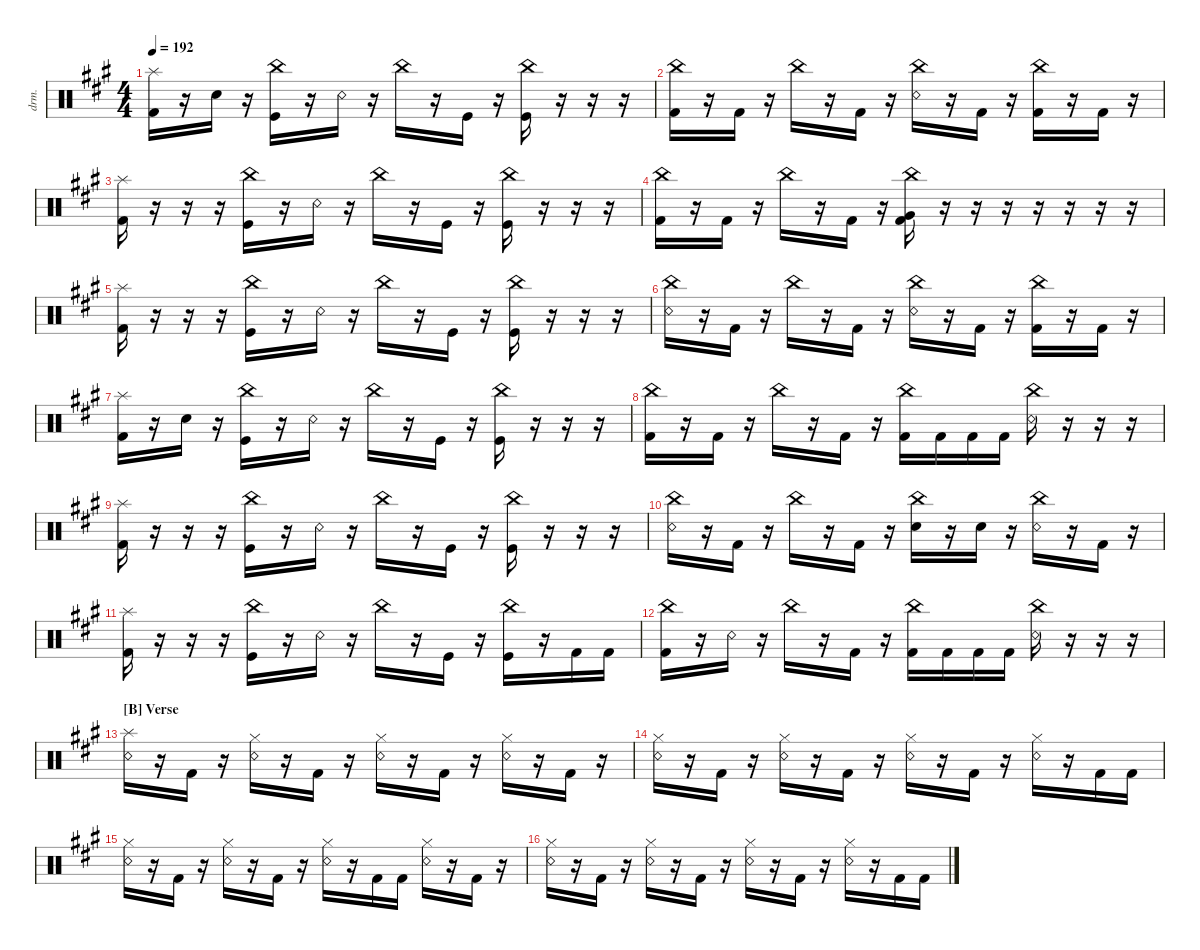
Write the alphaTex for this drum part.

\defaultSystemsLayout 4
\hideDynamics
\bracketExtendMode nobrackets
\otherSystemsTrackNameOrientation horizontal
\track ("Drumkit" "drm.") {instrument percussion}
\staff {score}
\articulation defaults
\ts (4 4)
\tempo 192
\clef neutral
\ks a
("Kick (hit) 2"{acc forcenatural} "Splash (hit)"{acc forcenatural}).16{dy ff beam Down} r.16{beam Down} "Snare (hit) 2"{acc forcenatural}.16{dy p beam Down} r.16{beam Down} ("China (hit)"{acc forcenatural} "Kick (hit)"{acc forcenatural}).16{dy ff beam Down} r.16{beam Down} "Snare (rim shot)"{acc forcenatural}.16{beam Down} r.16{beam Down} "China (hit)"{acc forcenatural}.16{beam Down} r.16{beam Down} "Kick (hit)"{acc forcenatural}.16{beam Down} r.16{beam Down} ("China (hit)"{acc forcenatural} "Kick (hit)"{acc forcenatural}).16{beam Down} r.16{beam Down} r.16{beam Down} r.16{beam Down} |
("Kick (hit) 2"{acc forcenatural} "China (hit)"{acc forcenatural}).16{beam Down} r.16{beam Down} "Kick (hit) 2"{acc forcenatural}.16{beam Down} r.16{beam Down} "China (hit)"{acc forcenatural}.16{beam Down} r.16{beam Down} "Kick (hit) 2"{acc forcenatural}.16{beam Down} r.16{beam Down} ("Snare (rim shot)"{acc forcenatural} "China (hit)"{acc forcenatural}).16{beam Down} r.16{beam Down} "Kick (hit) 2"{acc forcenatural}.16{beam Down} r.16{beam Down} ("Kick (hit) 2"{acc forcenatural} "China (hit)"{acc forcenatural}).16{beam Down} r.16{beam Down} "Kick (hit) 2"{acc forcenatural}.16{beam Down} r.16{beam Down} |
("Kick (hit) 2"{acc forcenatural} "Splash (hit)"{acc forcenatural}).16{beam Down} r.16{beam Down} r.16{beam Down} r.16{beam Down} ("China (hit)"{acc forcenatural} "Kick (hit)"{acc forcenatural}).16{beam Down} r.16{beam Down} "Snare (rim shot)"{acc forcenatural}.16{beam Down} r.16{beam Down} "China (hit)"{acc forcenatural}.16{beam Down} r.16{beam Down} "Kick (hit)"{acc forcenatural}.16{beam Down} r.16{beam Down} ("China (hit)"{acc forcenatural} "Kick (hit)"{acc forcenatural}).16{beam Down} r.16{beam Down} r.16{beam Down} r.16{beam Down} |
("Kick (hit) 2"{acc forcenatural} "China (hit)"{acc forcenatural}).16{beam Down} r.16{beam Down} "Kick (hit) 2"{acc forcenatural}.16{beam Down} r.16{beam Down} "China (hit)"{acc forcenatural}.16{beam Down} r.16{beam Down} "Kick (hit) 2"{acc forcenatural}.16{beam Down} r.16{beam Down} ("China (hit)"{acc forcenatural} "Kick (hit) 2"{acc forcenatural} "Very Low Tom (hit)"{acc forcenatural}).16{beam Down} r.16{beam Down} r.16{beam Down} r.16{beam Down} r.16{beam Down} r.16{beam Down} r.16{beam Down} r.16{beam Down} |
("Kick (hit) 2"{acc forcenatural} "Splash (hit)"{acc forcenatural}).16{beam Down} r.16{beam Down} r.16{beam Down} r.16{beam Down} ("China (hit)"{acc forcenatural} "Kick (hit)"{acc forcenatural}).16{beam Down} r.16{beam Down} "Snare (rim shot)"{acc forcenatural}.16{beam Down} r.16{beam Down} "China (hit)"{acc forcenatural}.16{beam Down} r.16{beam Down} "Kick (hit)"{acc forcenatural}.16{beam Down} r.16{beam Down} ("China (hit)"{acc forcenatural} "Kick (hit)"{acc forcenatural}).16{beam Down} r.16{beam Down} r.16{beam Down} r.16{beam Down} |
("China (hit)"{acc forcenatural} "Snare (rim shot)"{acc forcenatural}).16{beam Down} r.16{beam Down} "Kick (hit) 2"{acc forcenatural}.16{beam Down} r.16{beam Down} "China (hit)"{acc forcenatural}.16{beam Down} r.16{beam Down} "Kick (hit) 2"{acc forcenatural}.16{beam Down} r.16{beam Down} ("Snare (rim shot)"{acc forcenatural} "China (hit)"{acc forcenatural}).16{beam Down} r.16{beam Down} "Kick (hit) 2"{acc forcenatural}.16{beam Down} r.16{beam Down} ("Kick (hit) 2"{acc forcenatural} "China (hit)"{acc forcenatural}).16{beam Down} r.16{beam Down} "Kick (hit) 2"{acc forcenatural}.16{beam Down} r.16{beam Down} |
("Kick (hit) 2"{acc forcenatural} "Splash (hit)"{acc forcenatural}).16{beam Down} r.16{beam Down} "Snare (hit) 2"{acc forcenatural}.16{dy p beam Down} r.16{beam Down} ("China (hit)"{acc forcenatural} "Kick (hit)"{acc forcenatural}).16{dy ff beam Down} r.16{beam Down} "Snare (rim shot)"{acc forcenatural}.16{beam Down} r.16{beam Down} "China (hit)"{acc forcenatural}.16{beam Down} r.16{beam Down} "Kick (hit)"{acc forcenatural}.16{beam Down} r.16{beam Down} ("China (hit)"{acc forcenatural} "Kick (hit)"{acc forcenatural}).16{beam Down} r.16{beam Down} r.16{beam Down} r.16{beam Down} |
("Kick (hit) 2"{acc forcenatural} "China (hit)"{acc forcenatural}).16{beam Down} r.16{beam Down} "Kick (hit) 2"{acc forcenatural}.16{beam Down} r.16{beam Down} "China (hit)"{acc forcenatural}.16{beam Down} r.16{beam Down} "Kick (hit) 2"{acc forcenatural}.16{beam Down} r.16{beam Down} ("China (hit)"{acc forcenatural} "Kick (hit) 2"{acc forcenatural}).16{beam Down} "Kick (hit) 2"{acc forcenatural}.16{beam Down} "Kick (hit) 2"{acc forcenatural}.16{beam Down} "Kick (hit) 2"{acc forcenatural}.16{beam Down} ("China (hit)"{acc forcenatural} "Snare (rim shot)"{acc forcenatural}).16{beam Down} r.16{beam Down} r.16{beam Down} r.16{beam Down} |
("Kick (hit) 2"{acc forcenatural} "Splash (hit)"{acc forcenatural}).16{beam Down} r.16{beam Down} r.16{beam Down} r.16{beam Down} ("China (hit)"{acc forcenatural} "Kick (hit)"{acc forcenatural}).16{beam Down} r.16{beam Down} "Snare (rim shot)"{acc forcenatural}.16{beam Down} r.16{beam Down} "China (hit)"{acc forcenatural}.16{beam Down} r.16{beam Down} "Kick (hit)"{acc forcenatural}.16{beam Down} r.16{beam Down} ("China (hit)"{acc forcenatural} "Kick (hit)"{acc forcenatural}).16{beam Down} r.16{beam Down} r.16{beam Down} r.16{beam Down} |
("China (hit)"{acc forcenatural} "Snare (rim shot)"{acc forcenatural}).16{beam Down} r.16{beam Down} "Kick (hit) 2"{acc forcenatural}.16{beam Down} r.16{beam Down} "China (hit)"{acc forcenatural}.16{beam Down} r.16{beam Down} "Kick (hit) 2"{acc forcenatural}.16{beam Down} r.16{beam Down} ("Snare (hit) 2"{acc forcenatural} "China (hit)"{acc forcenatural}).16{dy p beam Down} r.16{beam Down} "Snare (hit) 2"{acc forcenatural}.16{beam Down} r.16{beam Down} ("China (hit)"{acc forcenatural} "Snare (rim shot)"{acc forcenatural}).16{dy ff beam Down} r.16{beam Down} "Kick (hit) 2"{acc forcenatural}.16{beam Down} r.16{beam Down} |
("Kick (hit) 2"{acc forcenatural} "Splash (hit)"{acc forcenatural}).16{beam Down} r.16{beam Down} r.16{beam Down} r.16{beam Down} ("China (hit)"{acc forcenatural} "Kick (hit)"{acc forcenatural}).16{beam Down} r.16{beam Down} "Snare (rim shot)"{acc forcenatural}.16{beam Down} r.16{beam Down} "China (hit)"{acc forcenatural}.16{beam Down} r.16{beam Down} "Kick (hit)"{acc forcenatural}.16{beam Down} r.16{beam Down} ("China (hit)"{acc forcenatural} "Kick (hit)"{acc forcenatural}).16{beam Down} r.16{beam Down} "Kick (hit) 2"{acc forcenatural}.16{beam Down} "Kick (hit) 2"{acc forcenatural}.16{beam Down} |
("China (hit)"{acc forcenatural} "Kick (hit) 2"{acc forcenatural}).16{beam Down} r.16{beam Down} "Snare (rim shot)"{acc forcenatural}.16{beam Down} r.16{beam Down} "China (hit)"{acc forcenatural}.16{beam Down} r.16{beam Down} "Kick (hit) 2"{acc forcenatural}.16{beam Down} r.16{beam Down} ("China (hit)"{acc forcenatural} "Kick (hit) 2"{acc forcenatural}).16{beam Down} "Kick (hit) 2"{acc forcenatural}.16{beam Down} "Kick (hit) 2"{acc forcenatural}.16{beam Down} "Kick (hit) 2"{acc forcenatural}.16{beam Down} ("China (hit)"{acc forcenatural} "Snare (rim shot)"{acc forcenatural}).16{beam Down} r.16{beam Down} r.16{beam Down} r.16{beam Down} |
\section ("B" "Verse")
("Snare (rim shot)"{acc forcenatural} "Splash (hit)"{acc forcenatural}).16{beam Down} r.16{beam Down} "Kick (hit) 2"{acc forcenatural}.16{beam Down} r.16{beam Down} ("Snare (rim shot)"{acc forcenatural} "Hi-Hat (closed)"{acc forcenatural}).16{beam Down} r.16{beam Down} "Kick (hit) 2"{acc forcenatural}.16{beam Down} r.16{beam Down} ("Snare (rim shot)"{acc forcenatural} "Hi-Hat (closed)"{acc forcenatural}).16{beam Down} r.16{beam Down} "Kick (hit) 2"{acc forcenatural}.16{beam Down} r.16{beam Down} ("Snare (rim shot)"{acc forcenatural} "Hi-Hat (closed)"{acc forcenatural}).16{beam Down} r.16{beam Down} "Kick (hit) 2"{acc forcenatural}.16{beam Down} r.16{beam Down} |
("Snare (rim shot)"{acc forcenatural} "Hi-Hat (closed)"{acc forcenatural}).16{beam Down} r.16{beam Down} "Kick (hit) 2"{acc forcenatural}.16{beam Down} r.16{beam Down} ("Snare (rim shot)"{acc forcenatural} "Hi-Hat (closed)"{acc forcenatural}).16{beam Down} r.16{beam Down} "Kick (hit) 2"{acc forcenatural}.16{beam Down} r.16{beam Down} ("Snare (rim shot)"{acc forcenatural} "Hi-Hat (closed)"{acc forcenatural}).16{beam Down} r.16{beam Down} "Kick (hit) 2"{acc forcenatural}.16{beam Down} r.16{beam Down} ("Snare (rim shot)"{acc forcenatural} "Hi-Hat (closed)"{acc forcenatural}).16{beam Down} r.16{beam Down} "Kick (hit) 2"{acc forcenatural}.16{beam Down} "Kick (hit) 2"{acc forcenatural}.16{beam Down} |
("Snare (rim shot)"{acc forcenatural} "Hi-Hat (closed)"{acc forcenatural}).16{beam Down} r.16{beam Down} "Kick (hit) 2"{acc forcenatural}.16{beam Down} r.16{beam Down} ("Snare (rim shot)"{acc forcenatural} "Hi-Hat (closed)"{acc forcenatural}).16{beam Down} r.16{beam Down} "Kick (hit) 2"{acc forcenatural}.16{beam Down} r.16{beam Down} ("Snare (rim shot)"{acc forcenatural} "Hi-Hat (closed)"{acc forcenatural}).16{beam Down} r.16{beam Down} "Kick (hit) 2"{acc forcenatural}.16{beam Down} "Kick (hit) 2"{acc forcenatural}.16{beam Down} ("Snare (rim shot)"{acc forcenatural} "Hi-Hat (closed)"{acc forcenatural}).16{beam Down} r.16{beam Down} "Kick (hit) 2"{acc forcenatural}.16{beam Down} r.16{beam Down} |
("Snare (rim shot)"{acc forcenatural} "Hi-Hat (closed)"{acc forcenatural}).16{beam Down} r.16{beam Down} "Kick (hit) 2"{acc forcenatural}.16{beam Down} r.16{beam Down} ("Snare (rim shot)"{acc forcenatural} "Hi-Hat (closed)"{acc forcenatural}).16{beam Down} r.16{beam Down} "Kick (hit) 2"{acc forcenatural}.16{beam Down} r.16{beam Down} ("Snare (rim shot)"{acc forcenatural} "Hi-Hat (closed)"{acc forcenatural}).16{beam Down} r.16{beam Down} "Kick (hit) 2"{acc forcenatural}.16{beam Down} r.16{beam Down} ("Snare (rim shot)"{acc forcenatural} "Hi-Hat (closed)"{acc forcenatural}).16{beam Down} r.16{beam Down} "Kick (hit) 2"{acc forcenatural}.16{beam Down} "Kick (hit) 2"{acc forcenatural}.16{beam Down}
